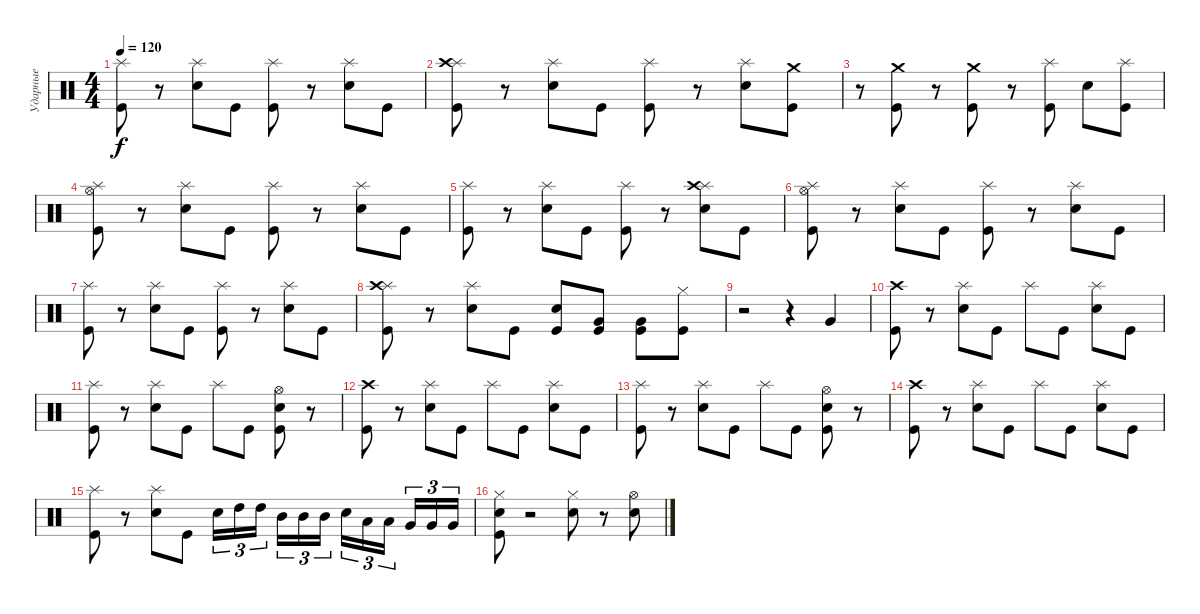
\track ("Ударные" "Ударные") {instrument percussion}
\staff {score}
\articulation defaults
\ts (4 4)
\tempo 120
\clef neutral
\ks c
("Splash (hit)" "Kick (hit)").8{dy f} r.8 ("Splash (hit)" "Snare (hit) 2").8 "Kick (hit)".8 ("Splash (hit)" "Kick (hit)").8 r.8 ("Splash (hit)" "Snare (hit) 2").8 "Kick (hit)".8 |
("Splash (hit)" "Crash high (hit)" "Kick (hit)").8 r.8 ("Splash (hit)" "Snare (hit) 2").8 "Kick (hit)".8 ("Splash (hit)" "Kick (hit)").8 r.8 ("Splash (hit)" "Snare (hit) 2").8 ("Crash medium (hit)" "Kick (hit)").8 |
r.8 ("Crash medium (hit)" "Kick (hit)").8 r.8 ("Crash medium (hit)" "Kick (hit)").8 r.8 ("Splash (hit)" "Kick (hit)").8 "Snare (hit) 2".8 ("Splash (hit)" "Kick (hit)").8 |
("Splash (hit)" "Hi-Hat (open)" "Kick (hit)").8 r.8 ("Splash (hit)" "Snare (hit) 2").8 "Kick (hit)".8 ("Splash (hit)" "Kick (hit)").8 r.8 ("Splash (hit)" "Snare (hit) 2").8 "Kick (hit)".8 |
("Splash (hit)" "Kick (hit)").8 r.8 ("Splash (hit)" "Snare (hit) 2").8 "Kick (hit)".8 ("Splash (hit)" "Kick (hit)").8 r.8 ("Splash (hit)" "Crash high (hit)" "Snare (hit) 2").8 "Kick (hit)".8 |
("Splash (hit)" "Hi-Hat (open)" "Kick (hit)").8 r.8 ("Splash (hit)" "Snare (hit) 2").8 "Kick (hit)".8 ("Splash (hit)" "Kick (hit)").8 r.8 ("Splash (hit)" "Snare (hit) 2").8 "Kick (hit)".8 |
("Splash (hit)" "Kick (hit)").8 r.8 ("Splash (hit)" "Snare (hit) 2").8 "Kick (hit)".8 ("Splash (hit)" "Kick (hit)").8 r.8 ("Splash (hit)" "Snare (hit) 2").8 "Kick (hit)".8 |
("Splash (hit)" "Crash high (hit)" "Kick (hit)").8 r.8 ("Splash (hit)" "Snare (hit) 2").8 "Kick (hit)".8 ("Snare (hit) 2" "Kick (hit)").8 ("Very Low Tom (hit)" "Kick (hit)").8 ("Very Low Tom (hit)" "Kick (hit)").8 ("Hi-Hat (closed)" "Kick (hit)").8 |
r.2 r.4 "Very Low Tom (hit)".4 |
("Crash high (hit)" "Kick (hit)").8 r.8 ("Splash (hit)" "Snare (hit) 2").8 "Kick (hit)".8 "Splash (hit)".8 "Kick (hit)".8 ("Splash (hit)" "Snare (hit) 2").8 "Kick (hit)".8 |
("Splash (hit)" "Kick (hit)").8 r.8 ("Splash (hit)" "Snare (hit) 2").8 "Kick (hit)".8 "Splash (hit)".8 "Kick (hit)".8 ("Hi-Hat (open)" "Snare (hit) 2" "Kick (hit)").8 r.8 |
("Crash high (hit)" "Kick (hit)").8 r.8 ("Splash (hit)" "Snare (hit) 2").8 "Kick (hit)".8 "Splash (hit)".8 "Kick (hit)".8 ("Splash (hit)" "Snare (hit) 2").8 "Kick (hit)".8 |
("Splash (hit)" "Kick (hit)").8 r.8 ("Splash (hit)" "Snare (hit) 2").8 "Kick (hit)".8 "Splash (hit)".8 "Kick (hit)".8 ("Hi-Hat (open)" "Snare (hit) 2" "Kick (hit)").8 r.8 |
("Crash high (hit)" "Kick (hit)").8 r.8 ("Splash (hit)" "Snare (hit) 2").8 "Kick (hit)".8 "Splash (hit)".8 "Kick (hit)".8 ("Splash (hit)" "Snare (hit) 2").8 "Kick (hit)".8 |
("Splash (hit)" "Kick (hit)").8 r.8 ("Splash (hit)" "Snare (hit) 2").8 "Kick (hit)".8 "Snare (hit) 2".16{tu (3 2)} "High Tom (hit)".16{tu (3 2)} "High Tom (hit)".16{tu (3 2) beam splitsecondary} "Mid Tom (hit)".16{tu (3 2)} "Mid Tom (hit)".16{tu (3 2)} "Mid Tom (hit)".16{tu (3 2)} "Snare (hit) 2".16{tu (3 2)} "Low Tom (hit)".16{tu (3 2)} "Low Tom (hit)".16{tu (3 2) beam splitsecondary} "Very Low Tom (hit)".16{tu (3 2)} "Very Low Tom (hit)".16{tu (3 2)} "Very Low Tom (hit)".16{tu (3 2)} |
("Hi-Hat (closed)" "Snare (hit) 2" "Kick (hit)").8 r.2 ("Hi-Hat (closed)" "Snare (hit) 2").8 r.8 ("Hi-Hat (open)" "Snare (hit) 2").8
